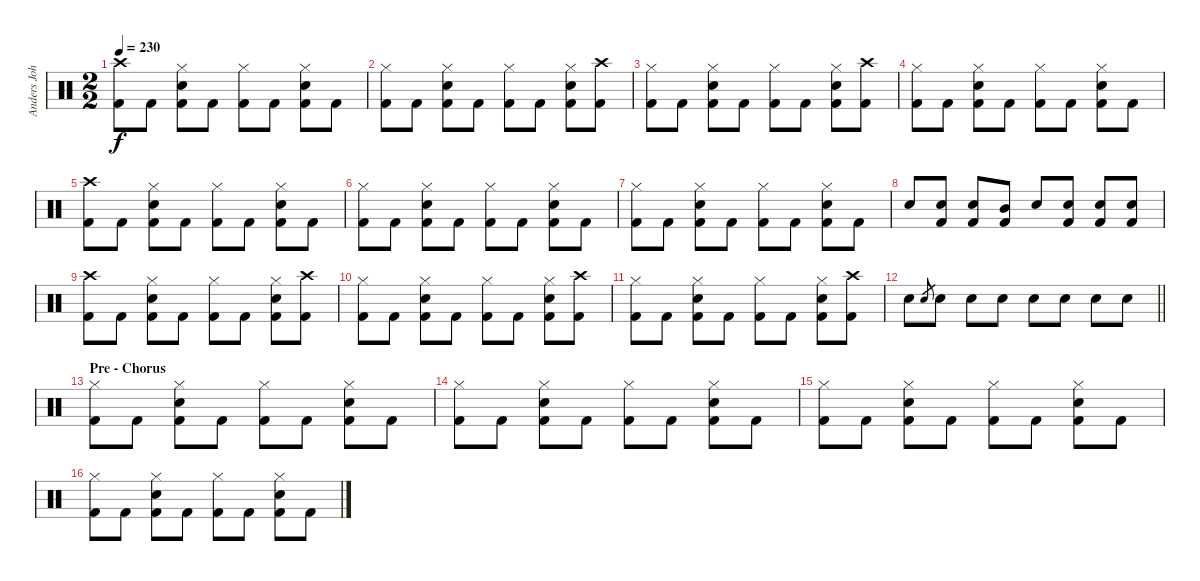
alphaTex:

\track ("Anders Johansson" "Anders Joh") {instrument percussion}
\staff {score}
\articulation defaults
\ts (2 2)
\tempo 230
\clef neutral
\ks c
("Crash high (hit)" "Kick (hit) 2").8{dy f} "Kick (hit) 2".8 ("Electric Snare (hit)" "Hi-Hat (closed)" "Kick (hit) 2").8 "Kick (hit) 2".8 ("Hi-Hat (closed)" "Kick (hit) 2").8 "Kick (hit) 2".8 ("Electric Snare (hit)" "Hi-Hat (closed)" "Kick (hit) 2").8 "Kick (hit) 2".8 |
("Hi-Hat (closed)" "Kick (hit) 2").8 "Kick (hit) 2".8 ("Electric Snare (hit)" "Hi-Hat (closed)" "Kick (hit) 2").8 "Kick (hit) 2".8 ("Hi-Hat (closed)" "Kick (hit) 2").8 "Kick (hit) 2".8 ("Electric Snare (hit)" "Hi-Hat (closed)" "Kick (hit) 2").8 ("Crash high (hit)" "Kick (hit) 2").8 |
("Hi-Hat (closed)" "Kick (hit) 2").8 "Kick (hit) 2".8 ("Electric Snare (hit)" "Hi-Hat (closed)" "Kick (hit) 2").8 "Kick (hit) 2".8 ("Hi-Hat (closed)" "Kick (hit) 2").8 "Kick (hit) 2".8 ("Electric Snare (hit)" "Hi-Hat (closed)" "Kick (hit) 2").8 ("Crash high (hit)" "Kick (hit) 2").8 |
("Hi-Hat (closed)" "Kick (hit) 2").8 "Kick (hit) 2".8 ("Electric Snare (hit)" "Hi-Hat (closed)" "Kick (hit) 2").8 "Kick (hit) 2".8 ("Hi-Hat (closed)" "Kick (hit) 2").8 "Kick (hit) 2".8 ("Electric Snare (hit)" "Hi-Hat (closed)" "Kick (hit) 2").8 "Kick (hit) 2".8 |
("Crash high (hit)" "Kick (hit) 2").8 "Kick (hit) 2".8 ("Electric Snare (hit)" "Hi-Hat (closed)" "Kick (hit) 2").8 "Kick (hit) 2".8 ("Hi-Hat (closed)" "Kick (hit) 2").8 "Kick (hit) 2".8 ("Electric Snare (hit)" "Hi-Hat (closed)" "Kick (hit) 2").8 "Kick (hit) 2".8 |
("Hi-Hat (closed)" "Kick (hit) 2").8 "Kick (hit) 2".8 ("Electric Snare (hit)" "Hi-Hat (closed)" "Kick (hit) 2").8 "Kick (hit) 2".8 ("Hi-Hat (closed)" "Kick (hit) 2").8 "Kick (hit) 2".8 ("Electric Snare (hit)" "Hi-Hat (closed)" "Kick (hit) 2").8 "Kick (hit) 2".8 |
("Hi-Hat (closed)" "Kick (hit) 2").8 "Kick (hit) 2".8 ("Electric Snare (hit)" "Hi-Hat (closed)" "Kick (hit) 2").8 "Kick (hit) 2".8 ("Hi-Hat (closed)" "Kick (hit) 2").8 "Kick (hit) 2".8 ("Electric Snare (hit)" "Hi-Hat (closed)" "Kick (hit) 2").8 "Kick (hit) 2".8 |
"Electric Snare (hit)".8 ("Electric Snare (hit)" "Kick (hit) 2").8 ("Electric Snare (hit)" "Kick (hit) 2").8 ("Mid Tom (hit)" "Kick (hit) 2").8 "Electric Snare (hit)".8 ("Electric Snare (hit)" "Kick (hit) 2").8 ("Electric Snare (hit)" "Kick (hit) 2").8 ("Electric Snare (hit)" "Kick (hit) 2").8 |
("Crash high (hit)" "Kick (hit) 2").8 "Kick (hit) 2".8 ("Electric Snare (hit)" "Hi-Hat (closed)" "Kick (hit) 2").8 "Kick (hit) 2".8 ("Hi-Hat (closed)" "Kick (hit) 2").8 "Kick (hit) 2".8 ("Electric Snare (hit)" "Hi-Hat (closed)" "Kick (hit) 2").8 ("Crash high (hit)" "Kick (hit) 2").8 |
("Hi-Hat (closed)" "Kick (hit) 2").8 "Kick (hit) 2".8 ("Electric Snare (hit)" "Hi-Hat (closed)" "Kick (hit) 2").8 "Kick (hit) 2".8 ("Hi-Hat (closed)" "Kick (hit) 2").8 "Kick (hit) 2".8 ("Electric Snare (hit)" "Hi-Hat (closed)" "Kick (hit) 2").8 ("Crash high (hit)" "Kick (hit) 2").8 |
("Hi-Hat (closed)" "Kick (hit) 2").8 "Kick (hit) 2".8 ("Electric Snare (hit)" "Hi-Hat (closed)" "Kick (hit) 2").8 "Kick (hit) 2".8 ("Hi-Hat (closed)" "Kick (hit) 2").8 "Kick (hit) 2".8 ("Electric Snare (hit)" "Hi-Hat (closed)" "Kick (hit) 2").8 ("Crash high (hit)" "Kick (hit) 2").8 |
\barLineRight lightlight "Electric Snare (hit)".8 "Electric Snare (hit)".8{gr} "Electric Snare (hit)".8 "Electric Snare (hit)".8 "Electric Snare (hit)".8 "Electric Snare (hit)".8 "Electric Snare (hit)".8 "Electric Snare (hit)".8 "Electric Snare (hit)".8
|
\section ("" "Pre - Chorus")
("Hi-Hat (closed)" "Kick (hit) 2").8 "Kick (hit) 2".8 ("Electric Snare (hit)" "Hi-Hat (closed)" "Kick (hit) 2").8 "Kick (hit) 2".8 ("Hi-Hat (closed)" "Kick (hit) 2").8 "Kick (hit) 2".8 ("Electric Snare (hit)" "Hi-Hat (closed)" "Kick (hit) 2").8 "Kick (hit) 2".8 |
("Hi-Hat (closed)" "Kick (hit) 2").8 "Kick (hit) 2".8 ("Electric Snare (hit)" "Hi-Hat (closed)" "Kick (hit) 2").8 "Kick (hit) 2".8 ("Hi-Hat (closed)" "Kick (hit) 2").8 "Kick (hit) 2".8 ("Electric Snare (hit)" "Hi-Hat (closed)" "Kick (hit) 2").8 "Kick (hit) 2".8 |
("Hi-Hat (closed)" "Kick (hit) 2").8 "Kick (hit) 2".8 ("Electric Snare (hit)" "Hi-Hat (closed)" "Kick (hit) 2").8 "Kick (hit) 2".8 ("Hi-Hat (closed)" "Kick (hit) 2").8 "Kick (hit) 2".8 ("Electric Snare (hit)" "Hi-Hat (closed)" "Kick (hit) 2").8 "Kick (hit) 2".8 |
("Hi-Hat (closed)" "Kick (hit) 2").8 "Kick (hit) 2".8 ("Electric Snare (hit)" "Hi-Hat (closed)" "Kick (hit) 2").8 "Kick (hit) 2".8 ("Hi-Hat (closed)" "Kick (hit) 2").8 "Kick (hit) 2".8 ("Electric Snare (hit)" "Hi-Hat (closed)" "Kick (hit) 2").8 "Kick (hit) 2".8
